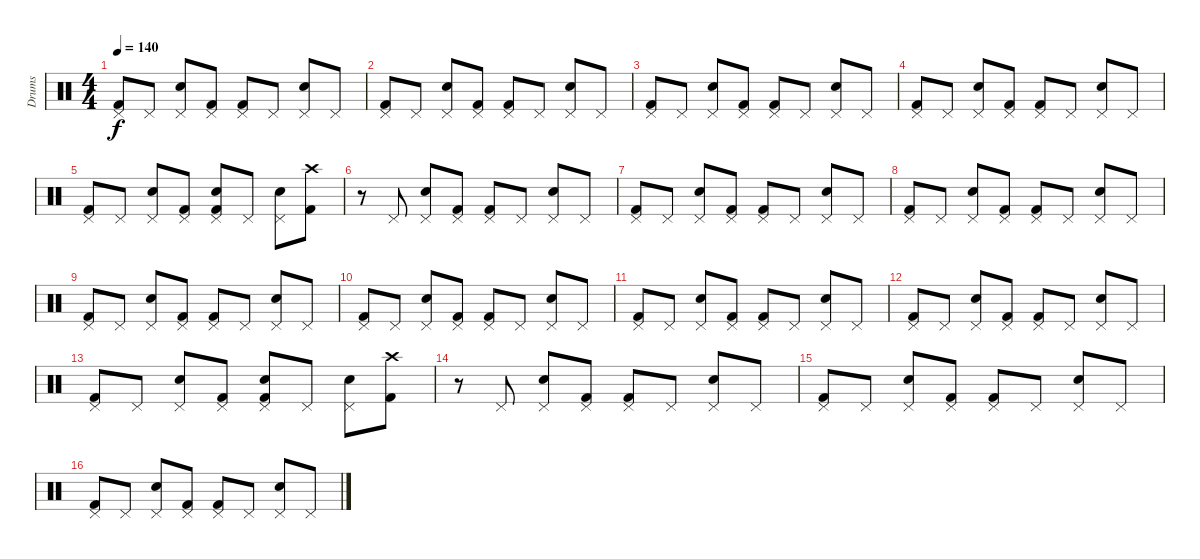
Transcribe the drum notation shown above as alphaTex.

\track ("Drums" "Drums") {instrument percussion}
\staff {score}
\articulation defaults
\ts (4 4)
\tempo 140
\clef neutral
\ks c
("Pedal Hi-Hat (hit)" "Kick (hit) 2").8{dy f} "Pedal Hi-Hat (hit)".8 ("Pedal Hi-Hat (hit)" "Electric Snare (hit)").8 ("Pedal Hi-Hat (hit)" "Kick (hit) 2").8 ("Pedal Hi-Hat (hit)" "Kick (hit) 2").8 "Pedal Hi-Hat (hit)".8 ("Pedal Hi-Hat (hit)" "Electric Snare (hit)").8 "Pedal Hi-Hat (hit)".8 |
("Pedal Hi-Hat (hit)" "Kick (hit) 2").8 "Pedal Hi-Hat (hit)".8 ("Pedal Hi-Hat (hit)" "Electric Snare (hit)").8 ("Pedal Hi-Hat (hit)" "Kick (hit) 2").8 ("Pedal Hi-Hat (hit)" "Kick (hit) 2").8 "Pedal Hi-Hat (hit)".8 ("Pedal Hi-Hat (hit)" "Electric Snare (hit)").8 "Pedal Hi-Hat (hit)".8 |
("Pedal Hi-Hat (hit)" "Kick (hit) 2").8 "Pedal Hi-Hat (hit)".8 ("Pedal Hi-Hat (hit)" "Electric Snare (hit)").8 ("Pedal Hi-Hat (hit)" "Kick (hit) 2").8 ("Pedal Hi-Hat (hit)" "Kick (hit) 2").8 "Pedal Hi-Hat (hit)".8 ("Pedal Hi-Hat (hit)" "Electric Snare (hit)").8 "Pedal Hi-Hat (hit)".8 |
("Pedal Hi-Hat (hit)" "Kick (hit) 2").8 "Pedal Hi-Hat (hit)".8 ("Pedal Hi-Hat (hit)" "Electric Snare (hit)").8 ("Pedal Hi-Hat (hit)" "Kick (hit) 2").8 ("Pedal Hi-Hat (hit)" "Kick (hit) 2").8 "Pedal Hi-Hat (hit)".8 ("Pedal Hi-Hat (hit)" "Electric Snare (hit)").8 "Pedal Hi-Hat (hit)".8 |
("Pedal Hi-Hat (hit)" "Kick (hit) 2").8 "Pedal Hi-Hat (hit)".8 ("Pedal Hi-Hat (hit)" "Electric Snare (hit)").8 ("Pedal Hi-Hat (hit)" "Kick (hit) 2").8 ("Pedal Hi-Hat (hit)" "Electric Snare (hit)" "Kick (hit) 2").8 "Pedal Hi-Hat (hit)".8 ("Pedal Hi-Hat (hit)" "Electric Snare (hit)").8 ("Crash high (hit)" "Kick (hit) 2").8 |
r.8 "Pedal Hi-Hat (hit)".8 ("Pedal Hi-Hat (hit)" "Electric Snare (hit)").8 ("Pedal Hi-Hat (hit)" "Kick (hit) 2").8 ("Pedal Hi-Hat (hit)" "Kick (hit) 2").8 "Pedal Hi-Hat (hit)".8 ("Pedal Hi-Hat (hit)" "Electric Snare (hit)").8 "Pedal Hi-Hat (hit)".8 |
("Pedal Hi-Hat (hit)" "Kick (hit) 2").8 "Pedal Hi-Hat (hit)".8 ("Pedal Hi-Hat (hit)" "Electric Snare (hit)").8 ("Pedal Hi-Hat (hit)" "Kick (hit) 2").8 ("Pedal Hi-Hat (hit)" "Kick (hit) 2").8 "Pedal Hi-Hat (hit)".8 ("Pedal Hi-Hat (hit)" "Electric Snare (hit)").8 "Pedal Hi-Hat (hit)".8 |
("Pedal Hi-Hat (hit)" "Kick (hit) 2").8 "Pedal Hi-Hat (hit)".8 ("Pedal Hi-Hat (hit)" "Electric Snare (hit)").8 ("Pedal Hi-Hat (hit)" "Kick (hit) 2").8 ("Pedal Hi-Hat (hit)" "Kick (hit) 2").8 "Pedal Hi-Hat (hit)".8 ("Pedal Hi-Hat (hit)" "Electric Snare (hit)").8 "Pedal Hi-Hat (hit)".8 |
("Pedal Hi-Hat (hit)" "Kick (hit) 2").8 "Pedal Hi-Hat (hit)".8 ("Pedal Hi-Hat (hit)" "Electric Snare (hit)").8 ("Pedal Hi-Hat (hit)" "Kick (hit) 2").8 ("Pedal Hi-Hat (hit)" "Kick (hit) 2").8 "Pedal Hi-Hat (hit)".8 ("Pedal Hi-Hat (hit)" "Electric Snare (hit)").8 "Pedal Hi-Hat (hit)".8 |
("Pedal Hi-Hat (hit)" "Kick (hit) 2").8 "Pedal Hi-Hat (hit)".8 ("Pedal Hi-Hat (hit)" "Electric Snare (hit)").8 ("Pedal Hi-Hat (hit)" "Kick (hit) 2").8 ("Pedal Hi-Hat (hit)" "Kick (hit) 2").8 "Pedal Hi-Hat (hit)".8 ("Pedal Hi-Hat (hit)" "Electric Snare (hit)").8 "Pedal Hi-Hat (hit)".8 |
("Pedal Hi-Hat (hit)" "Kick (hit) 2").8 "Pedal Hi-Hat (hit)".8 ("Pedal Hi-Hat (hit)" "Electric Snare (hit)").8 ("Pedal Hi-Hat (hit)" "Kick (hit) 2").8 ("Pedal Hi-Hat (hit)" "Kick (hit) 2").8 "Pedal Hi-Hat (hit)".8 ("Pedal Hi-Hat (hit)" "Electric Snare (hit)").8 "Pedal Hi-Hat (hit)".8 |
("Pedal Hi-Hat (hit)" "Kick (hit) 2").8 "Pedal Hi-Hat (hit)".8 ("Pedal Hi-Hat (hit)" "Electric Snare (hit)").8 ("Pedal Hi-Hat (hit)" "Kick (hit) 2").8 ("Pedal Hi-Hat (hit)" "Kick (hit) 2").8 "Pedal Hi-Hat (hit)".8 ("Pedal Hi-Hat (hit)" "Electric Snare (hit)").8 "Pedal Hi-Hat (hit)".8 |
("Pedal Hi-Hat (hit)" "Kick (hit) 2").8 "Pedal Hi-Hat (hit)".8 ("Pedal Hi-Hat (hit)" "Electric Snare (hit)").8 ("Pedal Hi-Hat (hit)" "Kick (hit) 2").8 ("Pedal Hi-Hat (hit)" "Electric Snare (hit)" "Kick (hit) 2").8 "Pedal Hi-Hat (hit)".8 ("Pedal Hi-Hat (hit)" "Electric Snare (hit)").8 ("Crash high (hit)" "Kick (hit) 2").8 |
r.8 "Pedal Hi-Hat (hit)".8 ("Pedal Hi-Hat (hit)" "Electric Snare (hit)").8 ("Pedal Hi-Hat (hit)" "Kick (hit) 2").8 ("Pedal Hi-Hat (hit)" "Kick (hit) 2").8 "Pedal Hi-Hat (hit)".8 ("Pedal Hi-Hat (hit)" "Electric Snare (hit)").8 "Pedal Hi-Hat (hit)".8 |
("Pedal Hi-Hat (hit)" "Kick (hit) 2").8 "Pedal Hi-Hat (hit)".8 ("Pedal Hi-Hat (hit)" "Electric Snare (hit)").8 ("Pedal Hi-Hat (hit)" "Kick (hit) 2").8 ("Pedal Hi-Hat (hit)" "Kick (hit) 2").8 "Pedal Hi-Hat (hit)".8 ("Pedal Hi-Hat (hit)" "Electric Snare (hit)").8 "Pedal Hi-Hat (hit)".8 |
("Pedal Hi-Hat (hit)" "Kick (hit) 2").8 "Pedal Hi-Hat (hit)".8 ("Pedal Hi-Hat (hit)" "Electric Snare (hit)").8 ("Pedal Hi-Hat (hit)" "Kick (hit) 2").8 ("Pedal Hi-Hat (hit)" "Kick (hit) 2").8 "Pedal Hi-Hat (hit)".8 ("Pedal Hi-Hat (hit)" "Electric Snare (hit)").8 "Pedal Hi-Hat (hit)".8
